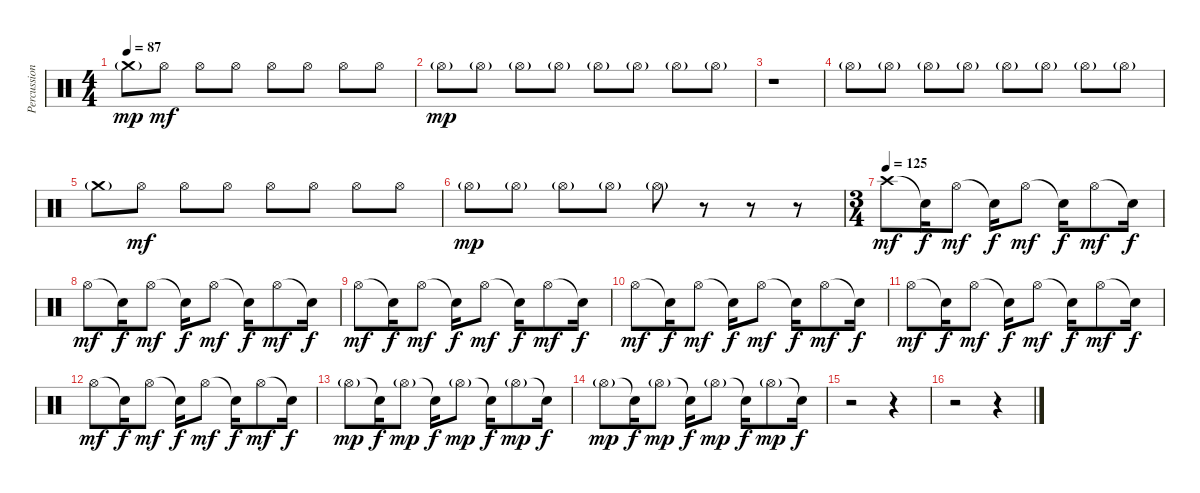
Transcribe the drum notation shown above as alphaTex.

\track ("Percussion2" "Percussion") {instrument percussion}
\staff {score}
\articulation defaults
\ts (4 4)
\tempo 87
\clef neutral
\ks c "Crash medium (hit)"{g}.8{dy mp} "Hi-Hat (open)".8{dy mf} "Hi-Hat (open)".8 "Hi-Hat (open)".8 "Hi-Hat (open)".8 "Hi-Hat (open)".8 "Hi-Hat (open)".8 "Hi-Hat (open)".8
|
"Hi-Hat (open)"{g}.8{dy mp} "Hi-Hat (open)"{g}.8 "Hi-Hat (open)"{g}.8 "Hi-Hat (open)"{g}.8 "Hi-Hat (open)"{g}.8 "Hi-Hat (open)"{g}.8 "Hi-Hat (open)"{g}.8 "Hi-Hat (open)"{g}.8 |
r.1 |
"Hi-Hat (open)"{g}.8 "Hi-Hat (open)"{g}.8 "Hi-Hat (open)"{g}.8 "Hi-Hat (open)"{g}.8 "Hi-Hat (open)"{g}.8 "Hi-Hat (open)"{g}.8 "Hi-Hat (open)"{g}.8 "Hi-Hat (open)"{g}.8 |
"Crash medium (hit)"{g}.8 "Hi-Hat (open)".8{dy mf} "Hi-Hat (open)".8 "Hi-Hat (open)".8 "Hi-Hat (open)".8 "Hi-Hat (open)".8 "Hi-Hat (open)".8 "Hi-Hat (open)".8 |
"Hi-Hat (open)"{g}.8{dy mp} "Hi-Hat (open)"{g}.8 "Hi-Hat (open)"{g}.8 "Hi-Hat (open)"{g}.8 "Hi-Hat (open)"{g}.8 r.8 r.8 r.8 |
\ts (3 4)
\tempo (125)
"Crash high (hit)".8{dy mf} "Snare (hit)"{t}.16{dy f} "Hi-Hat (open)".8{dy mf} "Snare (hit)"{t}.16{dy f} "Hi-Hat (open)".8{dy mf} "Snare (hit)"{t}.16{dy f} "Hi-Hat (open)".8{dy mf} "Snare (hit)"{t}.16{dy f} |
"Hi-Hat (open)".8{dy mf} "Snare (hit)"{t}.16{dy f} "Hi-Hat (open)".8{dy mf} "Snare (hit)"{t}.16{dy f} "Hi-Hat (open)".8{dy mf} "Snare (hit)"{t}.16{dy f} "Hi-Hat (open)".8{dy mf} "Snare (hit)"{t}.16{dy f} |
"Hi-Hat (open)".8{dy mf} "Snare (hit)"{t}.16{dy f} "Hi-Hat (open)".8{dy mf} "Snare (hit)"{t}.16{dy f} "Hi-Hat (open)".8{dy mf} "Snare (hit)"{t}.16{dy f} "Hi-Hat (open)".8{dy mf} "Snare (hit)"{t}.16{dy f} |
"Hi-Hat (open)".8{dy mf} "Snare (hit)"{t}.16{dy f} "Hi-Hat (open)".8{dy mf} "Snare (hit)"{t}.16{dy f} "Hi-Hat (open)".8{dy mf} "Snare (hit)"{t}.16{dy f} "Hi-Hat (open)".8{dy mf} "Snare (hit)"{t}.16{dy f} |
"Hi-Hat (open)".8{dy mf} "Snare (hit)"{t}.16{dy f} "Hi-Hat (open)".8{dy mf} "Snare (hit)"{t}.16{dy f} "Hi-Hat (open)".8{dy mf} "Snare (hit)"{t}.16{dy f} "Hi-Hat (open)".8{dy mf} "Snare (hit)"{t}.16{dy f} |
"Hi-Hat (open)".8{dy mf} "Snare (hit)"{t}.16{dy f} "Hi-Hat (open)".8{dy mf} "Snare (hit)"{t}.16{dy f} "Hi-Hat (open)".8{dy mf} "Snare (hit)"{t}.16{dy f} "Hi-Hat (open)".8{dy mf} "Snare (hit)"{t}.16{dy f} |
"Hi-Hat (open)"{g}.8{dy mp} "Snare (hit)"{t}.16{dy f} "Hi-Hat (open)"{g}.8{dy mp} "Snare (hit)"{t}.16{dy f} "Hi-Hat (open)"{g}.8{dy mp} "Snare (hit)"{t}.16{dy f} "Hi-Hat (open)"{g}.8{dy mp} "Snare (hit)"{t}.16{dy f} |
"Hi-Hat (open)"{g}.8{dy mp} "Snare (hit)"{t}.16{dy f} "Hi-Hat (open)"{g}.8{dy mp} "Snare (hit)"{t}.16{dy f} "Hi-Hat (open)"{g}.8{dy mp} "Snare (hit)"{t}.16{dy f} "Hi-Hat (open)"{g}.8{dy mp} "Snare (hit)"{t}.16{dy f} |
r.2 r.4 |
r.2 r.4
